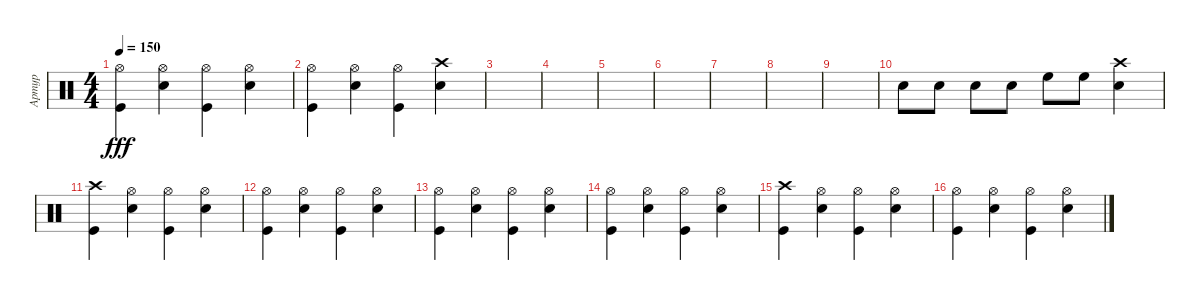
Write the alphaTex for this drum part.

\track ("Артур" "Артур") {instrument percussion}
\staff {score}
\articulation defaults
\ts (4 4)
\tempo 150
\clef neutral
\ks c
("Kick (hit)" "Hi-Hat (open)").4{dy fff} ("Hi-Hat (open)" "Electric Snare (hit)").4 ("Hi-Hat (open)" "Kick (hit)").4 ("Hi-Hat (open)" "Electric Snare (hit)").4 |
("Kick (hit)" "Hi-Hat (open)").4 ("Hi-Hat (open)" "Electric Snare (hit)").4 ("Hi-Hat (open)" "Kick (hit)").4 ("Crash high (hit)" "Electric Snare (hit)").4 |
|
|
|
|
|
|
|
"Electric Snare (hit)".8 "Electric Snare (hit)".8 "Electric Snare (hit)".8 "Electric Snare (hit)".8 "High Floor Tom (hit)".8 "High Floor Tom (hit)".8 ("Electric Snare (hit)" "Crash high (hit)").4 |
("Kick (hit)" "Crash high (hit)").4 ("Hi-Hat (open)" "Electric Snare (hit)").4 ("Hi-Hat (open)" "Kick (hit)").4 ("Hi-Hat (open)" "Electric Snare (hit)").4 |
("Kick (hit)" "Hi-Hat (open)").4 ("Hi-Hat (open)" "Electric Snare (hit)").4 ("Hi-Hat (open)" "Kick (hit)").4 ("Hi-Hat (open)" "Electric Snare (hit)").4 |
("Kick (hit)" "Hi-Hat (open)").4 ("Hi-Hat (open)" "Electric Snare (hit)").4 ("Hi-Hat (open)" "Kick (hit)").4 ("Hi-Hat (open)" "Electric Snare (hit)").4 |
("Kick (hit)" "Hi-Hat (open)").4 ("Hi-Hat (open)" "Electric Snare (hit)").4 ("Hi-Hat (open)" "Kick (hit)").4 ("Hi-Hat (open)" "Electric Snare (hit)").4 |
("Kick (hit)" "Crash high (hit)").4 ("Hi-Hat (open)" "Electric Snare (hit)").4 ("Hi-Hat (open)" "Kick (hit)").4 ("Hi-Hat (open)" "Electric Snare (hit)").4 |
("Kick (hit)" "Hi-Hat (open)").4 ("Hi-Hat (open)" "Electric Snare (hit)").4 ("Hi-Hat (open)" "Kick (hit)").4 ("Hi-Hat (open)" "Electric Snare (hit)").4
